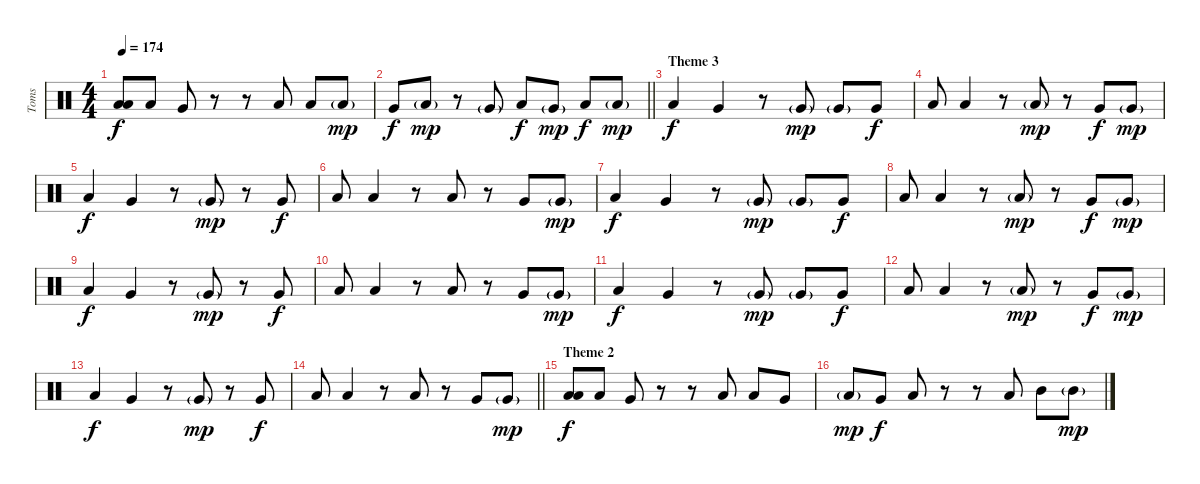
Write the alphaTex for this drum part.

\track ("Toms" "Toms") {instrument percussion}
\staff {score}
\articulation defaults
\ts (4 4)
\tempo 174
\clef neutral
\ks c
("Low Tom (hit)" "Low Floor Tom (hit)").8{dy f} "Low Tom (hit)".8 "Very Low Tom (hit)".8 r.8 r.8 "Low Floor Tom (hit)".8 "Low Floor Tom (hit)".8 "Low Floor Tom (hit)"{g}.8{dy mp} |
\barLineRight lightlight "Very Low Tom (hit)".8{dy f} "Low Floor Tom (hit)"{g}.8{dy mp}
r.8 "Very Low Tom (hit)"{g}.8 "Low Tom (hit)".8{dy f} "Very Low Tom (hit)"{g}.8{dy mp} "Low Tom (hit)".8{dy f} "Low Tom (hit)"{g}.8{dy mp} |
\section ("" "Theme 3")
"Low Tom (hit)".4{dy f} "Very Low Tom (hit)".4 r.8 "Very Low Tom (hit)"{g}.8{dy mp} "Very Low Tom (hit)"{g}.8 "Very Low Tom (hit)".8{dy f} |
"Low Tom (hit)".8 "Low Floor Tom (hit)".4 r.8 "Low Floor Tom (hit)"{g}.8{dy mp} r.8 "Very Low Tom (hit)".8{dy f} "Very Low Tom (hit)"{g}.8{dy mp} |
"Low Tom (hit)".4{dy f} "Very Low Tom (hit)".4 r.8 "Very Low Tom (hit)"{g}.8{dy mp} r.8 "Very Low Tom (hit)".8{dy f} |
"Low Tom (hit)".8 "Low Floor Tom (hit)".4 r.8 "Low Floor Tom (hit)".8 r.8 "Very Low Tom (hit)".8 "Very Low Tom (hit)"{g}.8{dy mp} |
"Low Tom (hit)".4{dy f} "Very Low Tom (hit)".4 r.8 "Very Low Tom (hit)"{g}.8{dy mp} "Very Low Tom (hit)"{g}.8 "Very Low Tom (hit)".8{dy f} |
"Low Tom (hit)".8 "Low Floor Tom (hit)".4 r.8 "Low Floor Tom (hit)"{g}.8{dy mp} r.8 "Very Low Tom (hit)".8{dy f} "Very Low Tom (hit)"{g}.8{dy mp} |
"Low Tom (hit)".4{dy f} "Very Low Tom (hit)".4 r.8 "Very Low Tom (hit)"{g}.8{dy mp} r.8 "Very Low Tom (hit)".8{dy f} |
"Low Tom (hit)".8 "Low Floor Tom (hit)".4 r.8 "Low Floor Tom (hit)".8 r.8 "Very Low Tom (hit)".8 "Very Low Tom (hit)"{g}.8{dy mp} |
"Low Tom (hit)".4{dy f} "Very Low Tom (hit)".4 r.8 "Very Low Tom (hit)"{g}.8{dy mp} "Very Low Tom (hit)"{g}.8 "Very Low Tom (hit)".8{dy f} |
"Low Tom (hit)".8 "Low Floor Tom (hit)".4 r.8 "Low Floor Tom (hit)"{g}.8{dy mp} r.8 "Very Low Tom (hit)".8{dy f} "Very Low Tom (hit)"{g}.8{dy mp} |
"Low Tom (hit)".4{dy f} "Very Low Tom (hit)".4 r.8 "Very Low Tom (hit)"{g}.8{dy mp} r.8 "Very Low Tom (hit)".8{dy f} |
\barLineRight lightlight "Low Tom (hit)".8 "Low Floor Tom (hit)".4
r.8 "Low Floor Tom (hit)".8 r.8 "Very Low Tom (hit)".8 "Very Low Tom (hit)"{g}.8{dy mp} |
\section ("" "Theme 2")
("Low Tom (hit)" "Low Floor Tom (hit)").8{dy f} "Low Tom (hit)".8 "Very Low Tom (hit)".8 r.8 r.8 "Low Floor Tom (hit)".8 "Low Floor Tom (hit)".8 "Very Low Tom (hit)".8 |
"Low Tom (hit)"{g}.8{dy mp} "Very Low Tom (hit)".8{dy f} "Low Floor Tom (hit)".8 r.8 r.8 "Low Floor Tom (hit)".8 "Mid Tom (hit)".8 "Mid Tom (hit)"{g}.8{dy mp}
